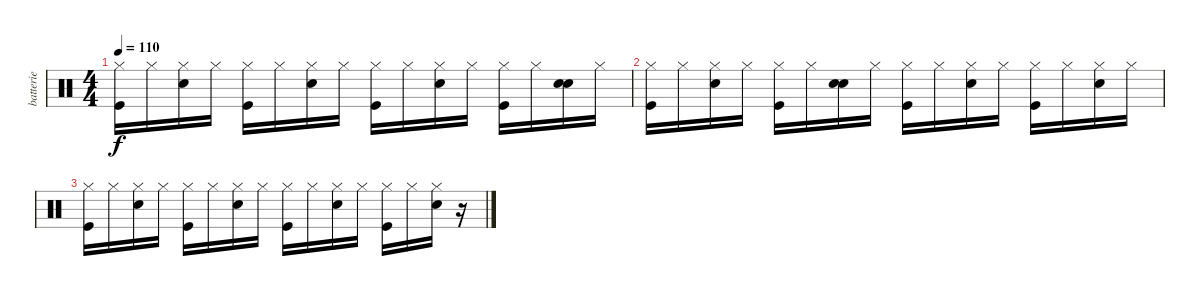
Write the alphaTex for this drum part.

\track ("batterie" "batterie") {instrument percussion}
\staff {score}
\articulation defaults
\ts (4 4)
\tempo 110
\clef neutral
\ks c
("Hi-Hat (closed)" "Kick (hit)").16{dy f} "Hi-Hat (closed)".16 ("Hi-Hat (closed)" "Snare (hit) 2").16 "Hi-Hat (closed)".16 ("Hi-Hat (closed)" "Kick (hit)").16 "Hi-Hat (closed)".16 ("Hi-Hat (closed)" "Snare (hit) 2").16 "Hi-Hat (closed)".16 ("Hi-Hat (closed)" "Kick (hit)").16 "Hi-Hat (closed)".16 ("Hi-Hat (closed)" "Snare (hit) 2").16 "Hi-Hat (closed)".16 ("Hi-Hat (closed)" "Kick (hit)").16 "Hi-Hat (closed)".16 ("Snare (hit)" "Snare (hit) 2").16 "Hi-Hat (closed)".16 |
("Hi-Hat (closed)" "Kick (hit)").16 "Hi-Hat (closed)".16 ("Hi-Hat (closed)" "Snare (hit) 2").16 "Hi-Hat (closed)".16 ("Hi-Hat (closed)" "Kick (hit)").16 "Hi-Hat (closed)".16 ("Snare (hit)" "Snare (hit) 2").16 "Hi-Hat (closed)".16 ("Hi-Hat (closed)" "Kick (hit)").16 "Hi-Hat (closed)".16 ("Hi-Hat (closed)" "Snare (hit) 2").16 "Hi-Hat (closed)".16 ("Hi-Hat (closed)" "Kick (hit)").16 "Hi-Hat (closed)".16 ("Hi-Hat (closed)" "Snare (hit) 2").16 "Hi-Hat (closed)".16 |
("Hi-Hat (closed)" "Kick (hit)").16 "Hi-Hat (closed)".16 ("Hi-Hat (closed)" "Snare (hit) 2").16 "Hi-Hat (closed)".16 ("Hi-Hat (closed)" "Kick (hit)").16 "Hi-Hat (closed)".16 ("Hi-Hat (closed)" "Snare (hit) 2").16 "Hi-Hat (closed)".16 ("Hi-Hat (closed)" "Kick (hit)").16 "Hi-Hat (closed)".16 ("Hi-Hat (closed)" "Snare (hit) 2").16 "Hi-Hat (closed)".16 ("Hi-Hat (closed)" "Kick (hit)").16 "Hi-Hat (closed)".16 ("Hi-Hat (closed)" "Snare (hit) 2").16 r.16
